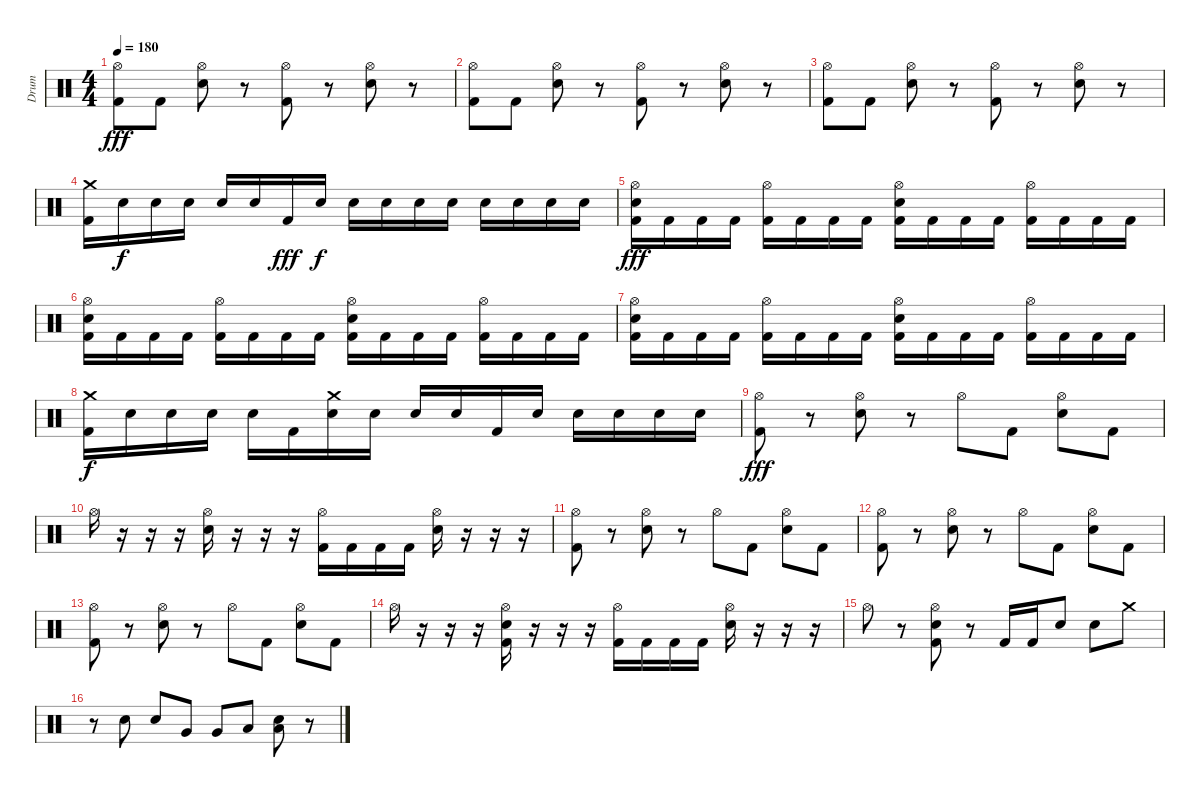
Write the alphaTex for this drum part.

\track ("Drum" "Drum") {instrument percussion}
\staff {score}
\articulation defaults
\ts (4 4)
\tempo 180
\clef neutral
\ks c
("Hi-Hat (open)" "Kick (hit) 2").8{dy fff} "Kick (hit) 2".8 ("Hi-Hat (open)" "Electric Snare (hit)").8 r.8 ("Hi-Hat (open)" "Kick (hit) 2").8 r.8 ("Hi-Hat (open)" "Electric Snare (hit)").8 r.8 |
("Hi-Hat (open)" "Kick (hit) 2").8 "Kick (hit) 2".8 ("Hi-Hat (open)" "Electric Snare (hit)").8 r.8 ("Hi-Hat (open)" "Kick (hit) 2").8 r.8 ("Hi-Hat (open)" "Electric Snare (hit)").8 r.8 |
("Hi-Hat (open)" "Kick (hit) 2").8 "Kick (hit) 2".8 ("Hi-Hat (open)" "Electric Snare (hit)").8 r.8 ("Hi-Hat (open)" "Kick (hit) 2").8 r.8 ("Hi-Hat (open)" "Electric Snare (hit)").8 r.8 |
("Crash medium (hit)" "Kick (hit) 2").16 "Electric Snare (hit)".16{dy f} "Electric Snare (hit)".16 "Electric Snare (hit)".16 "Electric Snare (hit)".16 "Electric Snare (hit)".16 "Kick (hit) 2".16{dy fff} "Electric Snare (hit)".16{dy f} "Electric Snare (hit)".16 "Electric Snare (hit)".16 "Electric Snare (hit)".16 "Electric Snare (hit)".16 "Electric Snare (hit)".16 "Electric Snare (hit)".16 "Electric Snare (hit)".16 "Electric Snare (hit)".16 |
("Hi-Hat (open)" "Electric Snare (hit)" "Kick (hit) 2").16{dy fff} "Kick (hit) 2".16 "Kick (hit) 2".16 "Kick (hit) 2".16 ("Hi-Hat (open)" "Kick (hit) 2").16 "Kick (hit) 2".16 "Kick (hit) 2".16 "Kick (hit) 2".16 ("Hi-Hat (open)" "Electric Snare (hit)" "Kick (hit) 2").16 "Kick (hit) 2".16 "Kick (hit) 2".16 "Kick (hit) 2".16 ("Hi-Hat (open)" "Kick (hit) 2").16 "Kick (hit) 2".16 "Kick (hit) 2".16 "Kick (hit) 2".16 |
("Hi-Hat (open)" "Electric Snare (hit)" "Kick (hit) 2").16 "Kick (hit) 2".16 "Kick (hit) 2".16 "Kick (hit) 2".16 ("Hi-Hat (open)" "Kick (hit) 2").16 "Kick (hit) 2".16 "Kick (hit) 2".16 "Kick (hit) 2".16 ("Hi-Hat (open)" "Electric Snare (hit)" "Kick (hit) 2").16 "Kick (hit) 2".16 "Kick (hit) 2".16 "Kick (hit) 2".16 ("Hi-Hat (open)" "Kick (hit) 2").16 "Kick (hit) 2".16 "Kick (hit) 2".16 "Kick (hit) 2".16 |
("Hi-Hat (open)" "Electric Snare (hit)" "Kick (hit) 2").16 "Kick (hit) 2".16 "Kick (hit) 2".16 "Kick (hit) 2".16 ("Hi-Hat (open)" "Kick (hit) 2").16 "Kick (hit) 2".16 "Kick (hit) 2".16 "Kick (hit) 2".16 ("Hi-Hat (open)" "Electric Snare (hit)" "Kick (hit) 2").16 "Kick (hit) 2".16 "Kick (hit) 2".16 "Kick (hit) 2".16 ("Hi-Hat (open)" "Kick (hit) 2").16 "Kick (hit) 2".16 "Kick (hit) 2".16 "Kick (hit) 2".16 |
("Crash medium (hit)" "Kick (hit) 2").16{dy f} "Electric Snare (hit)".16 "Electric Snare (hit)".16 "Electric Snare (hit)".16 "Electric Snare (hit)".16 "Kick (hit) 2".16 ("Crash medium (hit)" "Electric Snare (hit)").16 "Electric Snare (hit)".16 "Electric Snare (hit)".16 "Electric Snare (hit)".16 "Kick (hit) 2".16 "Electric Snare (hit)".16 "Electric Snare (hit)".16 "Electric Snare (hit)".16 "Electric Snare (hit)".16 "Electric Snare (hit)".16 |
("Hi-Hat (open)" "Kick (hit) 2").8{dy fff} r.8 ("Hi-Hat (open)" "Electric Snare (hit)").8 r.8 "Hi-Hat (open)".8 "Kick (hit) 2".8 ("Hi-Hat (open)" "Electric Snare (hit)").8 "Kick (hit) 2".8 |
"Hi-Hat (open)".16 r.16 r.16 r.16 ("Hi-Hat (open)" "Electric Snare (hit)").16 r.16 r.16 r.16 ("Hi-Hat (open)" "Kick (hit) 2").16 "Kick (hit) 2".16 "Kick (hit) 2".16 "Kick (hit) 2".16 ("Hi-Hat (open)" "Electric Snare (hit)").16 r.16 r.16 r.16 |
("Hi-Hat (open)" "Kick (hit) 2").8 r.8 ("Hi-Hat (open)" "Electric Snare (hit)").8 r.8 "Hi-Hat (open)".8 "Kick (hit) 2".8 ("Hi-Hat (open)" "Electric Snare (hit)").8 "Kick (hit) 2".8 |
("Hi-Hat (open)" "Kick (hit) 2").8 r.8 ("Hi-Hat (open)" "Electric Snare (hit)").8 r.8 "Hi-Hat (open)".8 "Kick (hit) 2".8 ("Hi-Hat (open)" "Electric Snare (hit)").8 "Kick (hit) 2".8 |
("Hi-Hat (open)" "Kick (hit) 2").8 r.8 ("Hi-Hat (open)" "Electric Snare (hit)").8 r.8 "Hi-Hat (open)".8 "Kick (hit) 2".8 ("Hi-Hat (open)" "Electric Snare (hit)").8 "Kick (hit) 2".8 |
"Hi-Hat (open)".16 r.16 r.16 r.16 ("Hi-Hat (open)" "Electric Snare (hit)" "Kick (hit) 2").16 r.16 r.16 r.16 ("Hi-Hat (open)" "Kick (hit) 2").16 "Kick (hit) 2".16 "Kick (hit) 2".16 "Kick (hit) 2".16 ("Hi-Hat (open)" "Electric Snare (hit)").16 r.16 r.16 r.16 |
"Hi-Hat (open)".8 r.8 ("Hi-Hat (open)" "Electric Snare (hit)" "Kick (hit) 2").8 r.8 "Kick (hit) 2".16 "Kick (hit) 2".16 "Electric Snare (hit)".8 "Electric Snare (hit)".8 "Crash medium (hit)".8 |
r.8 "Electric Snare (hit)".8 "Electric Snare (hit)".8 "Very Low Tom (hit)".8 "Very Low Tom (hit)".8 "Low Floor Tom (hit)".8 ("Electric Snare (hit)" "Low Floor Tom (hit)").8 r.8
